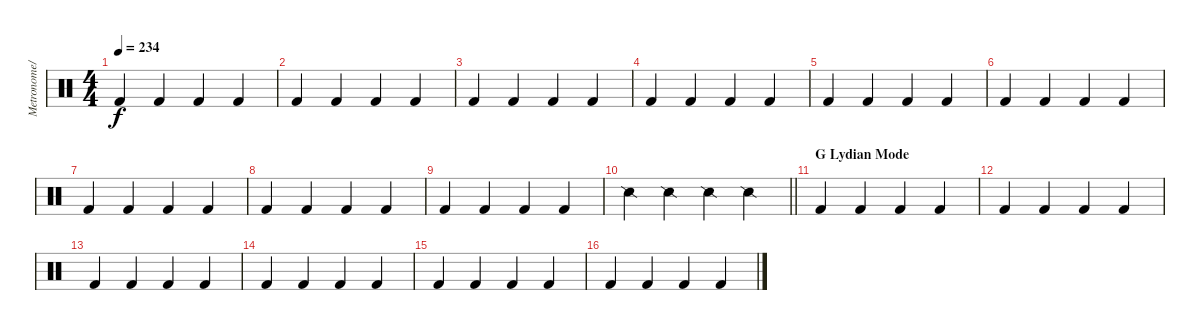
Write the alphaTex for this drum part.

\track ("Metronome/Beat" "Metronome/") {instrument percussion}
\staff {score}
\articulation defaults
\ts (4 4)
\tempo 234
\clef neutral
\ks c "Kick (hit) 2".4{dy f} "Kick (hit) 2".4 "Kick (hit) 2".4 "Kick (hit) 2".4
|
"Kick (hit) 2".4 "Kick (hit) 2".4 "Kick (hit) 2".4 "Kick (hit) 2".4 |
"Kick (hit) 2".4 "Kick (hit) 2".4 "Kick (hit) 2".4 "Kick (hit) 2".4 |
"Kick (hit) 2".4 "Kick (hit) 2".4 "Kick (hit) 2".4 "Kick (hit) 2".4 |
"Kick (hit) 2".4 "Kick (hit) 2".4 "Kick (hit) 2".4 "Kick (hit) 2".4 |
"Kick (hit) 2".4 "Kick (hit) 2".4 "Kick (hit) 2".4 "Kick (hit) 2".4 |
"Kick (hit) 2".4 "Kick (hit) 2".4 "Kick (hit) 2".4 "Kick (hit) 2".4 |
"Kick (hit) 2".4 "Kick (hit) 2".4 "Kick (hit) 2".4 "Kick (hit) 2".4 |
"Kick (hit) 2".4 "Kick (hit) 2".4 "Kick (hit) 2".4 "Kick (hit) 2".4 |
\barLineRight lightlight "Snare (side stick) 2".4 "Snare (side stick) 2".4 "Snare (side stick) 2".4 "Snare (side stick) 2".4
|
\section ("" "G Lydian Mode")
"Kick (hit) 2".4 "Kick (hit) 2".4 "Kick (hit) 2".4 "Kick (hit) 2".4 |
"Kick (hit) 2".4 "Kick (hit) 2".4 "Kick (hit) 2".4 "Kick (hit) 2".4 |
"Kick (hit) 2".4 "Kick (hit) 2".4 "Kick (hit) 2".4 "Kick (hit) 2".4 |
"Kick (hit) 2".4 "Kick (hit) 2".4 "Kick (hit) 2".4 "Kick (hit) 2".4 |
"Kick (hit) 2".4 "Kick (hit) 2".4 "Kick (hit) 2".4 "Kick (hit) 2".4 |
"Kick (hit) 2".4 "Kick (hit) 2".4 "Kick (hit) 2".4 "Kick (hit) 2".4
